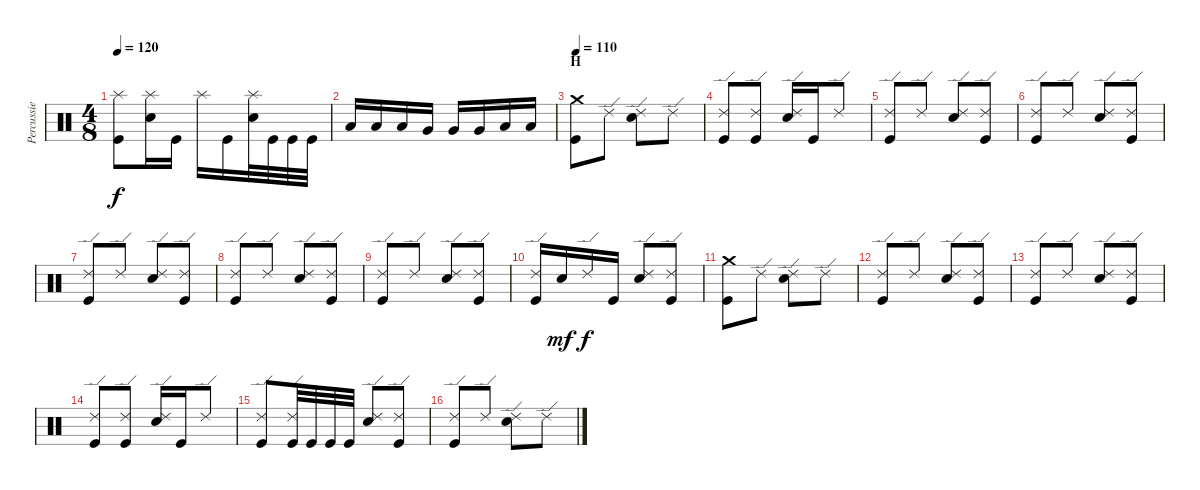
\track ("Percussie" "Percussie") {instrument percussion}
\staff {score}
\articulation defaults
\ts (4 8)
\tempo 120
\clef neutral
\ks c
("Splash (hit)" "Kick (hit)").8{dy f} ("Splash (hit)" "Electric Snare (hit)").16 "Kick (hit)".16 "Splash (hit)".16 "Kick (hit)".16 ("Splash (hit)" "Electric Snare (hit)").32 "Kick (hit)".32 "Kick (hit)".32 "Kick (hit)".32 |
"Low Tom (hit)".16 "Low Tom (hit)".16 "Low Tom (hit)".16 "Very Low Tom (hit)".16 "Very Low Tom (hit)".16 "Very Low Tom (hit)".16 "Low Floor Tom (hit)".16 "Low Floor Tom (hit)".16 |
\section ("" "H")
\tempo 110
("Crash medium (hit)" "Kick (hit)").8 "Ride (edge) 2".8 ("Ride (edge) 2" "Electric Snare (hit)").8 "Ride (edge) 2".8 |
("Ride (edge) 2" "Kick (hit)").8 ("Ride (edge) 2" "Kick (hit)").8 ("Ride (edge) 2" "Electric Snare (hit)").16 "Kick (hit)".16 "Ride (edge) 2".8 |
("Ride (edge) 2" "Kick (hit)").8 "Ride (edge) 2".8 ("Ride (edge) 2" "Electric Snare (hit)").8 ("Ride (edge) 2" "Kick (hit)").8 |
("Ride (edge) 2" "Kick (hit)").8 "Ride (edge) 2".8 ("Ride (edge) 2" "Electric Snare (hit)").8 ("Ride (edge) 2" "Kick (hit)").8 |
("Ride (edge) 2" "Kick (hit)").8 "Ride (edge) 2".8 ("Ride (edge) 2" "Electric Snare (hit)").8 ("Ride (edge) 2" "Kick (hit)").8 |
("Ride (edge) 2" "Kick (hit)").8 "Ride (edge) 2".8 ("Ride (edge) 2" "Electric Snare (hit)").8 ("Ride (edge) 2" "Kick (hit)").8 |
("Ride (edge) 2" "Kick (hit)").8 "Ride (edge) 2".8 ("Ride (edge) 2" "Electric Snare (hit)").8 ("Ride (edge) 2" "Kick (hit)").8 |
("Ride (edge) 2" "Kick (hit)").16 "Electric Snare (hit)".16{dy mf} "Ride (edge) 2".16{dy f} "Kick (hit)".16 ("Ride (edge) 2" "Electric Snare (hit)").8 ("Ride (edge) 2" "Kick (hit)").8 |
("Crash medium (hit)" "Kick (hit)").8 "Ride (edge) 2".8 ("Ride (edge) 2" "Electric Snare (hit)").8 "Ride (edge) 2".8 |
("Ride (edge) 2" "Kick (hit)").8 "Ride (edge) 2".8 ("Ride (edge) 2" "Electric Snare (hit)").8 ("Ride (edge) 2" "Kick (hit)").8 |
("Ride (edge) 2" "Kick (hit)").8 "Ride (edge) 2".8 ("Ride (edge) 2" "Electric Snare (hit)").8 ("Ride (edge) 2" "Kick (hit)").8 |
("Ride (edge) 2" "Kick (hit)").8 ("Ride (edge) 2" "Kick (hit)").8 ("Ride (edge) 2" "Electric Snare (hit)").16 "Kick (hit)".16 "Ride (edge) 2".8 |
("Ride (edge) 2" "Kick (hit)").8 ("Ride (edge) 2" "Kick (hit)").32 "Kick (hit)".32 "Kick (hit)".32 "Kick (hit)".32 ("Ride (edge) 2" "Electric Snare (hit)").8 ("Ride (edge) 2" "Kick (hit)").8 |
("Ride (edge) 2" "Kick (hit)").8 "Ride (edge) 2".8 ("Ride (edge) 2" "Electric Snare (hit)").8 "Ride (edge) 2".8
